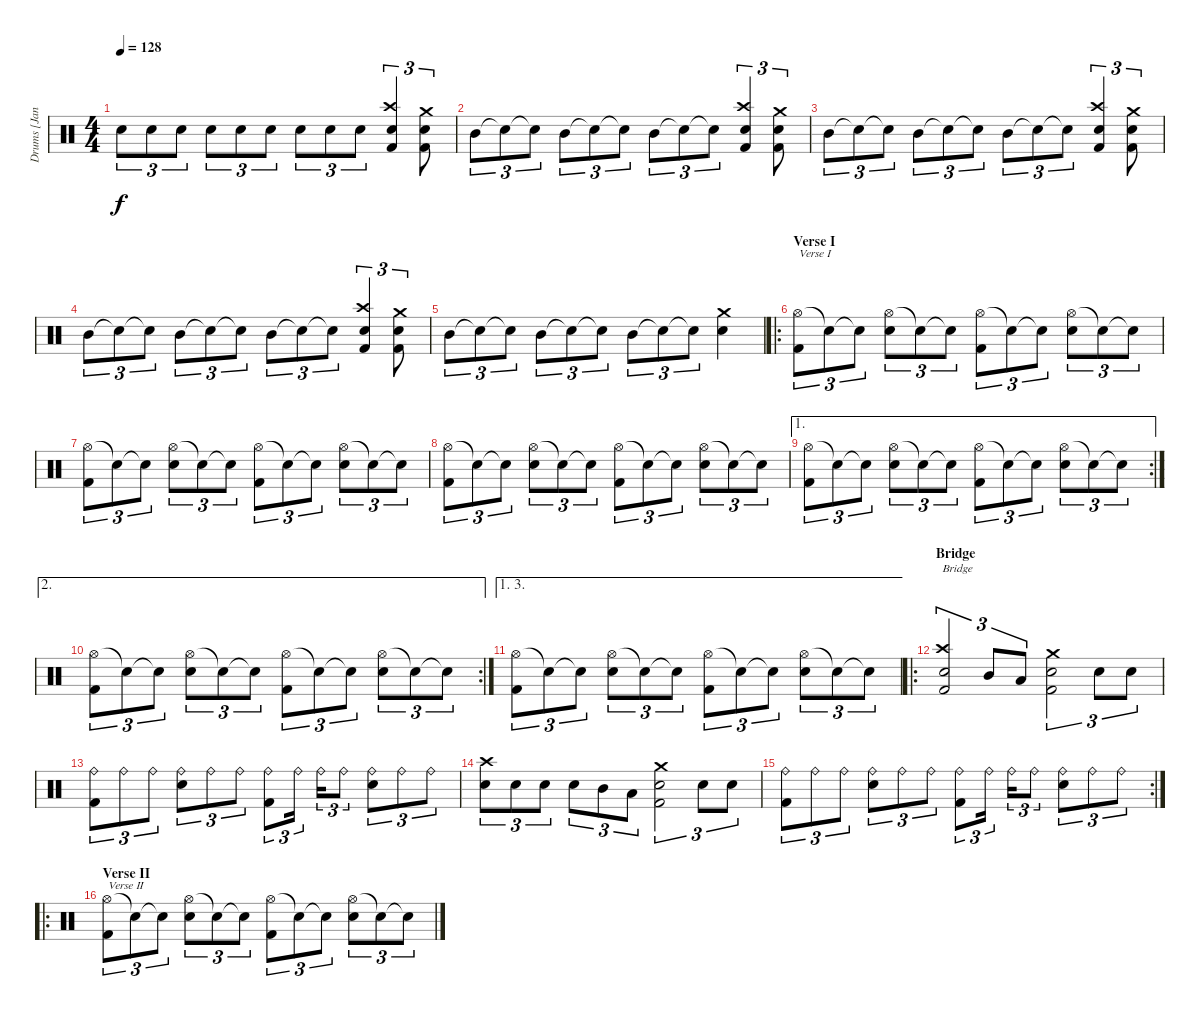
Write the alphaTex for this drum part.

\track ("Drums [Janne Saarenpaa]" "Drums [Jan") {instrument percussion}
\staff {score}
\articulation defaults
\ts (4 4)
\tempo 128
\clef neutral
\ks c "Electric Snare (hit)".8{tu (3 2) dy f} "Electric Snare (hit)".8{tu (3 2)} "Electric Snare (hit)".8{tu (3 2)} "Electric Snare (hit)".8{tu (3 2)} "Electric Snare (hit)".8{tu (3 2)} "Electric Snare (hit)".8{tu (3 2)} "Electric Snare (hit)".8{tu (3 2)} "Electric Snare (hit)".8{tu (3 2)} "Electric Snare (hit)".8{tu (3 2)}
("Crash high (hit)" "Electric Snare (hit)" "Kick (hit) 2").4{tu (3 2)} ("Crash medium (hit)" "Electric Snare (hit)" "Kick (hit) 2").8{tu (3 2)} |
"Mid Tom (hit)".8{tu (3 2)} "Snare (hit)"{t}.8{tu (3 2)} "Snare (hit)"{t}.8{tu (3 2)} "Mid Tom (hit)".8{tu (3 2)} "Snare (hit)"{t}.8{tu (3 2)} "Snare (hit)"{t}.8{tu (3 2)} "Mid Tom (hit)".8{tu (3 2)} "Snare (hit)"{t}.8{tu (3 2)} "Snare (hit)"{t}.8{tu (3 2)} ("Crash high (hit)" "Electric Snare (hit)" "Kick (hit) 2").4{tu (3 2)} ("Crash medium (hit)" "Electric Snare (hit)" "Kick (hit) 2").8{tu (3 2)} |
"Mid Tom (hit)".8{tu (3 2)} "Snare (hit)"{t}.8{tu (3 2)} "Snare (hit)"{t}.8{tu (3 2)} "Mid Tom (hit)".8{tu (3 2)} "Snare (hit)"{t}.8{tu (3 2)} "Snare (hit)"{t}.8{tu (3 2)} "Mid Tom (hit)".8{tu (3 2)} "Snare (hit)"{t}.8{tu (3 2)} "Snare (hit)"{t}.8{tu (3 2)} ("Crash high (hit)" "Electric Snare (hit)" "Kick (hit) 2").4{tu (3 2)} ("Crash medium (hit)" "Electric Snare (hit)" "Kick (hit) 2").8{tu (3 2)} |
"Mid Tom (hit)".8{tu (3 2)} "Snare (hit)"{t}.8{tu (3 2)} "Snare (hit)"{t}.8{tu (3 2)} "Mid Tom (hit)".8{tu (3 2)} "Snare (hit)"{t}.8{tu (3 2)} "Snare (hit)"{t}.8{tu (3 2)} "Mid Tom (hit)".8{tu (3 2)} "Snare (hit)"{t}.8{tu (3 2)} "Snare (hit)"{t}.8{tu (3 2)} ("Crash high (hit)" "Electric Snare (hit)" "Kick (hit) 2").4{tu (3 2)} ("Crash medium (hit)" "Electric Snare (hit)" "Kick (hit) 2").8{tu (3 2)} |
"Mid Tom (hit)".8{tu (3 2)} "Snare (hit)"{t}.8{tu (3 2)} "Snare (hit)"{t}.8{tu (3 2)} "Mid Tom (hit)".8{tu (3 2)} "Snare (hit)"{t}.8{tu (3 2)} "Snare (hit)"{t}.8{tu (3 2)} "Mid Tom (hit)".8{tu (3 2)} "Snare (hit)"{t}.8{tu (3 2)} "Snare (hit)"{t}.8{tu (3 2)} ("Crash medium (hit)" "Electric Snare (hit)").4 |
\ro
\section ("" "Verse I")
("Hi-Hat (open)" "Kick (hit) 2").8{tu (3 2) txt "Verse I"} "Snare (hit)"{t}.8{tu (3 2)} "Snare (hit)"{t}.8{tu (3 2)} ("Hi-Hat (open)" "Electric Snare (hit)").8{tu (3 2)} "Snare (hit)"{t}.8{tu (3 2)} "Snare (hit)"{t}.8{tu (3 2)} ("Hi-Hat (open)" "Kick (hit) 2").8{tu (3 2)} "Snare (hit)"{t}.8{tu (3 2)} "Snare (hit)"{t}.8{tu (3 2)} ("Hi-Hat (open)" "Electric Snare (hit)").8{tu (3 2)} "Snare (hit)"{t}.8{tu (3 2)} "Snare (hit)"{t}.8{tu (3 2)} |
("Hi-Hat (open)" "Kick (hit) 2").8{tu (3 2)} "Snare (hit)"{t}.8{tu (3 2)} "Snare (hit)"{t}.8{tu (3 2)} ("Hi-Hat (open)" "Electric Snare (hit)").8{tu (3 2)} "Snare (hit)"{t}.8{tu (3 2)} "Snare (hit)"{t}.8{tu (3 2)} ("Hi-Hat (open)" "Kick (hit) 2").8{tu (3 2)} "Snare (hit)"{t}.8{tu (3 2)} "Snare (hit)"{t}.8{tu (3 2)} ("Hi-Hat (open)" "Electric Snare (hit)").8{tu (3 2)} "Snare (hit)"{t}.8{tu (3 2)} "Snare (hit)"{t}.8{tu (3 2)} |
("Hi-Hat (open)" "Kick (hit) 2").8{tu (3 2)} "Snare (hit)"{t}.8{tu (3 2)} "Snare (hit)"{t}.8{tu (3 2)} ("Hi-Hat (open)" "Electric Snare (hit)").8{tu (3 2)} "Snare (hit)"{t}.8{tu (3 2)} "Snare (hit)"{t}.8{tu (3 2)} ("Hi-Hat (open)" "Kick (hit) 2").8{tu (3 2)} "Snare (hit)"{t}.8{tu (3 2)} "Snare (hit)"{t}.8{tu (3 2)} ("Hi-Hat (open)" "Electric Snare (hit)").8{tu (3 2)} "Snare (hit)"{t}.8{tu (3 2)} "Snare (hit)"{t}.8{tu (3 2)} |
\ae 1
\rc 2
("Hi-Hat (open)" "Kick (hit) 2").8{tu (3 2)} "Snare (hit)"{t}.8{tu (3 2)} "Snare (hit)"{t}.8{tu (3 2)} ("Hi-Hat (open)" "Electric Snare (hit)").8{tu (3 2)} "Snare (hit)"{t}.8{tu (3 2)} "Snare (hit)"{t}.8{tu (3 2)} ("Hi-Hat (open)" "Kick (hit) 2").8{tu (3 2)} "Snare (hit)"{t}.8{tu (3 2)} "Snare (hit)"{t}.8{tu (3 2)} ("Hi-Hat (open)" "Electric Snare (hit)").8{tu (3 2)} "Snare (hit)"{t}.8{tu (3 2)} "Snare (hit)"{t}.8{tu (3 2)} |
\ae 2
\rc 2
("Hi-Hat (open)" "Kick (hit) 2").8{tu (3 2)} "Snare (hit)"{t}.8{tu (3 2)} "Snare (hit)"{t}.8{tu (3 2)} ("Hi-Hat (open)" "Electric Snare (hit)").8{tu (3 2)} "Snare (hit)"{t}.8{tu (3 2)} "Snare (hit)"{t}.8{tu (3 2)} ("Hi-Hat (open)" "Kick (hit) 2").8{tu (3 2)} "Snare (hit)"{t}.8{tu (3 2)} "Snare (hit)"{t}.8{tu (3 2)} ("Hi-Hat (open)" "Electric Snare (hit)").8{tu (3 2)} "Snare (hit)"{t}.8{tu (3 2)} "Snare (hit)"{t}.8{tu (3 2)} |
\ae (1 3)
("Hi-Hat (open)" "Kick (hit) 2").8{tu (3 2)} "Snare (hit)"{t}.8{tu (3 2)} "Snare (hit)"{t}.8{tu (3 2)} ("Hi-Hat (open)" "Electric Snare (hit)").8{tu (3 2)} "Snare (hit)"{t}.8{tu (3 2)} "Snare (hit)"{t}.8{tu (3 2)} ("Hi-Hat (open)" "Kick (hit) 2").8{tu (3 2)} "Snare (hit)"{t}.8{tu (3 2)} "Snare (hit)"{t}.8{tu (3 2)} ("Hi-Hat (open)" "Electric Snare (hit)").8{tu (3 2)} "Snare (hit)"{t}.8{tu (3 2)} "Snare (hit)"{t}.8{tu (3 2)} |
\ro
\section ("" "Bridge")
("Crash high (hit)" "Electric Snare (hit)" "Kick (hit) 2").2{tu (3 2) txt "Bridge"} "Mid Tom (hit)".8{tu (3 2)} "Low Tom (hit)".8{tu (3 2)} ("Crash medium (hit)" "Electric Snare (hit)" "Kick (hit) 2").2{tu (3 2)} "Electric Snare (hit)".8{tu (3 2)} "Electric Snare (hit)".8{tu (3 2)} |
("Ride (bell)" "Kick (hit) 2").8{tu (3 2)} "Ride (bell)".8{tu (3 2)} "Ride (bell)".8{tu (3 2)} ("Ride (bell)" "Electric Snare (hit)").8{tu (3 2)} "Ride (bell)".8{tu (3 2)} "Ride (bell)".8{tu (3 2)} ("Ride (bell)" "Kick (hit) 2").8{tu (3 2)} "Ride (bell)".16{tu (3 2)} "Ride (bell)".16{tu (3 2)} "Ride (bell)".8{tu (3 2)} ("Ride (bell)" "Electric Snare (hit)").8{tu (3 2)} "Ride (bell)".8{tu (3 2)} "Ride (bell)".8{tu (3 2)} |
("Crash high (hit)" "Electric Snare (hit)").8{tu (3 2)} "Electric Snare (hit)".8{tu (3 2)} "Electric Snare (hit)".8{tu (3 2)} "Electric Snare (hit)".8{tu (3 2)} "Mid Tom (hit)".8{tu (3 2)} "Low Tom (hit)".8{tu (3 2)} ("Crash medium (hit)" "Electric Snare (hit)" "Kick (hit) 2").2{tu (3 2)} "Electric Snare (hit)".8{tu (3 2)} "Electric Snare (hit)".8{tu (3 2)} |
\rc 2
("Ride (bell)" "Kick (hit) 2").8{tu (3 2)} "Ride (bell)".8{tu (3 2)} "Ride (bell)".8{tu (3 2)} ("Ride (bell)" "Electric Snare (hit)").8{tu (3 2)} "Ride (bell)".8{tu (3 2)} "Ride (bell)".8{tu (3 2)} ("Ride (bell)" "Kick (hit) 2").8{tu (3 2)} "Ride (bell)".16{tu (3 2)} "Ride (bell)".16{tu (3 2)} "Ride (bell)".8{tu (3 2)} ("Ride (bell)" "Electric Snare (hit)").8{tu (3 2)} "Ride (bell)".8{tu (3 2)} "Ride (bell)".8{tu (3 2)} |
\ro
\section ("" "Verse II")
("Hi-Hat (open)" "Kick (hit) 2").8{tu (3 2) txt "Verse II"} "Snare (hit)"{t}.8{tu (3 2)} "Snare (hit)"{t}.8{tu (3 2)} ("Hi-Hat (open)" "Electric Snare (hit)").8{tu (3 2)} "Snare (hit)"{t}.8{tu (3 2)} "Snare (hit)"{t}.8{tu (3 2)} ("Hi-Hat (open)" "Kick (hit) 2").8{tu (3 2)} "Snare (hit)"{t}.8{tu (3 2)} "Snare (hit)"{t}.8{tu (3 2)} ("Hi-Hat (open)" "Electric Snare (hit)").8{tu (3 2)} "Snare (hit)"{t}.8{tu (3 2)} "Snare (hit)"{t}.8{tu (3 2)}
